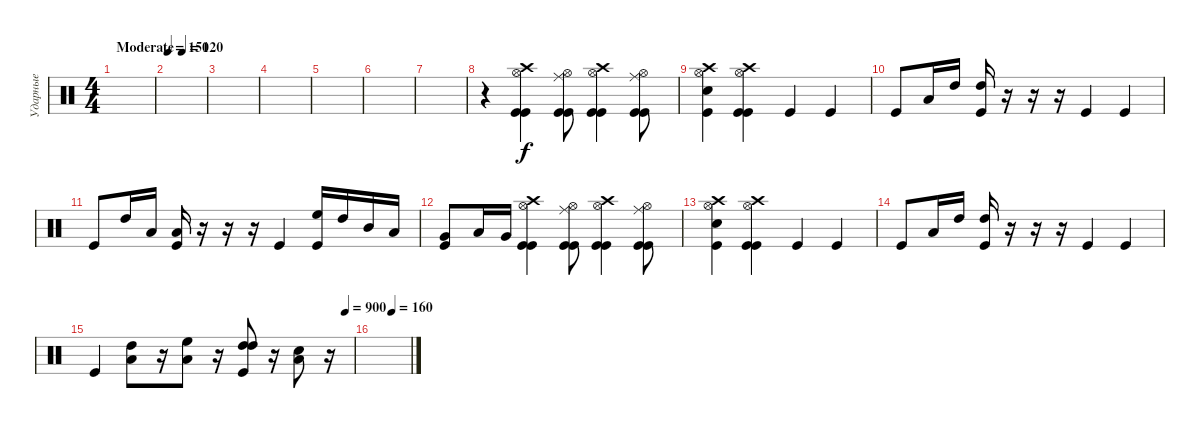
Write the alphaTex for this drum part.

\track ("Ударные" "Ударные") {instrument percussion}
\staff {score}
\articulation defaults
\ts (4 4)
\tempo (120 "Moderate")
\clef neutral
\ks c
|
\tempo 150
|
|
|
|
|
|
r.4 ("Crash high (hit)" "Hi-Hat (open)" "Kick (hit)" "Kick (hit)").4 ("Hi-Hat (open)" "Ride (middle)" "Kick (hit)" "Kick (hit)").8 ("Crash high (hit)" "Hi-Hat (open)" "Kick (hit)" "Kick (hit)").4 ("Hi-Hat (open)" "Ride (middle)" "Kick (hit)" "Kick (hit)").8 |
("Crash high (hit)" "Hi-Hat (open)" "Snare (hit) 2" "Kick (hit)").4 ("Crash high (hit)" "Hi-Hat (open)" "Kick (hit)" "Kick (hit)").4 "Kick (hit)".4 "Kick (hit)".4 |
"Kick (hit)".8 "Low Tom (hit)".16 "High Tom (hit)".16 ("High Tom (hit)" "Kick (hit)").16 r.16 r.16 r.16 "Kick (hit)".4 "Kick (hit)".4 |
"Kick (hit)".8 "High Tom (hit)".16 "Low Tom (hit)".16 ("Low Tom (hit)" "Kick (hit)").16 r.16 r.16 r.16 "Kick (hit)".4 ("High Floor Tom (hit)" "Kick (hit)").16 "High Tom (hit)".16 "Mid Tom (hit)".16 "Low Tom (hit)".16 |
("Very Low Tom (hit)" "Kick (hit)").8 "Low Floor Tom (hit)".16 "Very Low Tom (hit)".16 ("Crash high (hit)" "Hi-Hat (open)" "Kick (hit)" "Kick (hit)").4 ("Hi-Hat (open)" "Ride (middle)" "Kick (hit)" "Kick (hit)").8 ("Crash high (hit)" "Hi-Hat (open)" "Kick (hit)" "Kick (hit)").4 ("Hi-Hat (open)" "Ride (middle)" "Kick (hit)" "Kick (hit)").8 |
("Crash high (hit)" "Hi-Hat (open)" "Snare (hit) 2" "Kick (hit)").4 ("Crash high (hit)" "Hi-Hat (open)" "Kick (hit)" "Kick (hit)").4 "Kick (hit)".4 "Kick (hit)".4 |
"Kick (hit)".8 "Low Tom (hit)".16 "High Tom (hit)".16 ("High Tom (hit)" "Kick (hit)").16 r.16 r.16 r.16 "Kick (hit)".4 "Kick (hit)".4 |
\tempo (900 0.96875)
"Kick (hit)".4 ("High Tom (hit)" "Low Floor Tom (hit)").8 r.16 ("High Floor Tom (hit)" "Low Tom (hit)").8 r.16 ("High Tom (hit)" "High Tom (hit)" "Kick (hit)").8 r.16 ("Low Floor Tom (hit)" "Snare (hit) 2").8 r.16 |
\tempo (160 0.5)
